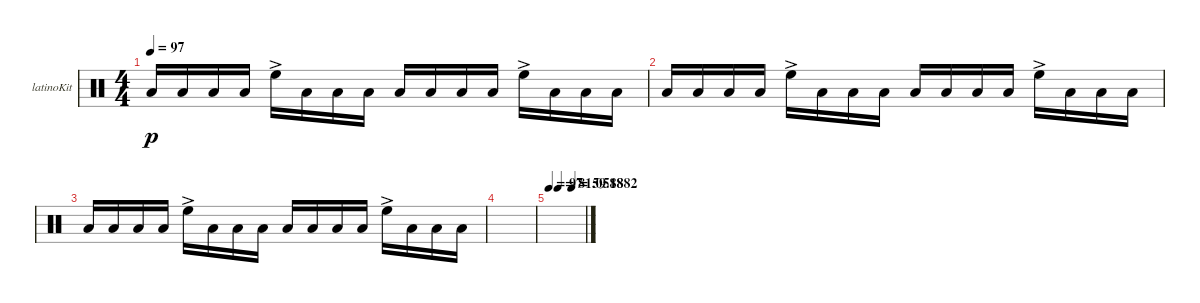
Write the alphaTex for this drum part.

\bracketExtendMode groupsimilarinstruments
\firstSystemTrackNameOrientation horizontal
\otherSystemsTrackNameOrientation horizontal
\track ("Kit-Latino" "latinoKit") {instrument percussion}
\staff {score}
\articulation defaults
\ts (4 4)
\tempo 97
\clef neutral
\ks c "Low Tom (hit)".16{dy p} "Low Tom (hit)".16 "Low Tom (hit)".16 "Low Tom (hit)".16 "High Floor Tom (hit)"{ac}.16 "Low Tom (hit)".16 "Low Tom (hit)".16 "Low Tom (hit)".16 "Low Tom (hit)".16 "Low Tom (hit)".16 "Low Tom (hit)".16 "Low Tom (hit)".16 "High Floor Tom (hit)"{ac}.16 "Low Tom (hit)".16 "Low Tom (hit)".16 "Low Tom (hit)".16
|
"Low Tom (hit)".16 "Low Tom (hit)".16 "Low Tom (hit)".16 "Low Tom (hit)".16 "High Floor Tom (hit)"{ac}.16 "Low Tom (hit)".16 "Low Tom (hit)".16 "Low Tom (hit)".16 "Low Tom (hit)".16 "Low Tom (hit)".16 "Low Tom (hit)".16 "Low Tom (hit)".16 "High Floor Tom (hit)"{ac}.16 "Low Tom (hit)".16 "Low Tom (hit)".16 "Low Tom (hit)".16 |
"Low Tom (hit)".16 "Low Tom (hit)".16 "Low Tom (hit)".16 "Low Tom (hit)".16 "High Floor Tom (hit)"{ac}.16 "Low Tom (hit)".16 "Low Tom (hit)".16 "Low Tom (hit)".16 "Low Tom (hit)".16 "Low Tom (hit)".16 "Low Tom (hit)".16 "Low Tom (hit)".16 "High Floor Tom (hit)"{ac}.16 "Low Tom (hit)".16 "Low Tom (hit)".16 "Low Tom (hit)".16 |
|
\tempo 97
\tempo (81.0588 0.25)
\tempo (59.1882 0.6375)
\scale
0.333333 |
\scale
0.333333
